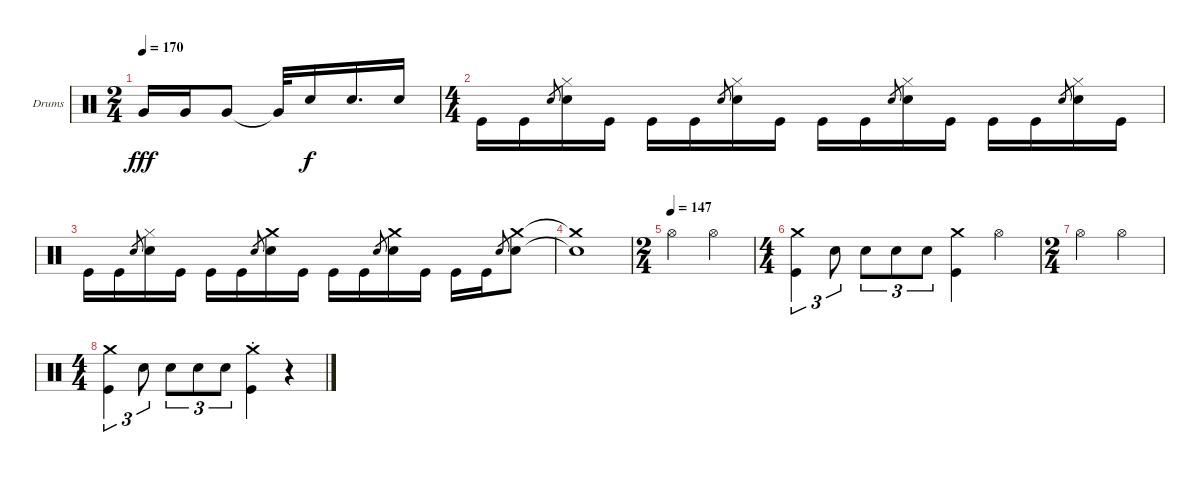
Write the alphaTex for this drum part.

\bracketExtendMode groupsimilarinstruments
\firstSystemTrackNameOrientation horizontal
\otherSystemsTrackNameOrientation horizontal
\track ("Drums" "Drums") {instrument percussion}
\staff {score}
\articulation defaults
\ts (2 4)
\tempo 170
\clef neutral
\ks c "Very Low Tom (hit)".16{dy fff} "Very Low Tom (hit)".16 "Very Low Tom (hit)".8 "Very Low Tom (hit)"{t}.32 "Snare (hit) 2".16{dy f} "Snare (hit) 2".16{d} "Snare (hit) 2".16
|
\ts (4 4)
"Kick (hit)".16 "Kick (hit)".16 "Snare (hit) 2".8{gr} ("Snare (hit) 2" "Hi-Hat (closed)").16 "Kick (hit)".16 "Kick (hit)".16 "Kick (hit)".16 "Snare (hit) 2".8{gr} ("Snare (hit) 2" "Hi-Hat (closed)").16 "Kick (hit)".16 "Kick (hit)".16 "Kick (hit)".16 "Snare (hit) 2".8{gr} ("Snare (hit) 2" "Hi-Hat (closed)").16 "Kick (hit)".16 "Kick (hit)".16 "Kick (hit)".16 "Snare (hit) 2".8{gr} ("Snare (hit) 2" "Hi-Hat (closed)").16 "Kick (hit)".16 |
"Kick (hit)".16 "Kick (hit)".16 "Snare (hit) 2".8{gr} ("Snare (hit) 2" "Hi-Hat (closed)").16 "Kick (hit)".16 "Kick (hit)".16 "Kick (hit)".16 "Snare (hit) 2".8{gr} ("Snare (hit) 2" "Crash medium (hit)").16 "Kick (hit)".16 "Kick (hit)".16 "Kick (hit)".16 "Snare (hit) 2".8{gr} ("Snare (hit) 2" "Crash medium (hit)").16 "Kick (hit)".16 "Kick (hit)".16 "Kick (hit)".16 "Snare (hit) 2".8{gr} ("Snare (hit) 2" "Crash medium (hit)").8 |
("Snare (hit) 2"{t} "Crash medium (hit)"{t}).1 |
\ts (2 4)
\tempo (147)
"Hi-Hat (open)".4 "Hi-Hat (open)".4 |
\ts (4 4)
("Crash medium (hit)" "Kick (hit)").4{tu (3 2)} "Snare (hit) 2".8{tu (3 2)} "Snare (hit) 2".8{tu (3 2)} "Snare (hit) 2".8{tu (3 2)} "Snare (hit) 2".8{tu (3 2)} ("Crash medium (hit)" "Kick (hit)").4 "Hi-Hat (open)".4 |
\ts (2 4)
"Hi-Hat (open)".4 "Hi-Hat (open)".4 |
\ts (4 4)
("Crash medium (hit)" "Kick (hit)").4{tu (3 2)} "Snare (hit) 2".8{tu (3 2)} "Snare (hit) 2".8{tu (3 2)} "Snare (hit) 2".8{tu (3 2)} "Snare (hit) 2".8{tu (3 2)} ("Crash medium (hit)"{st} "Kick (hit)"{st}).4 r.4
